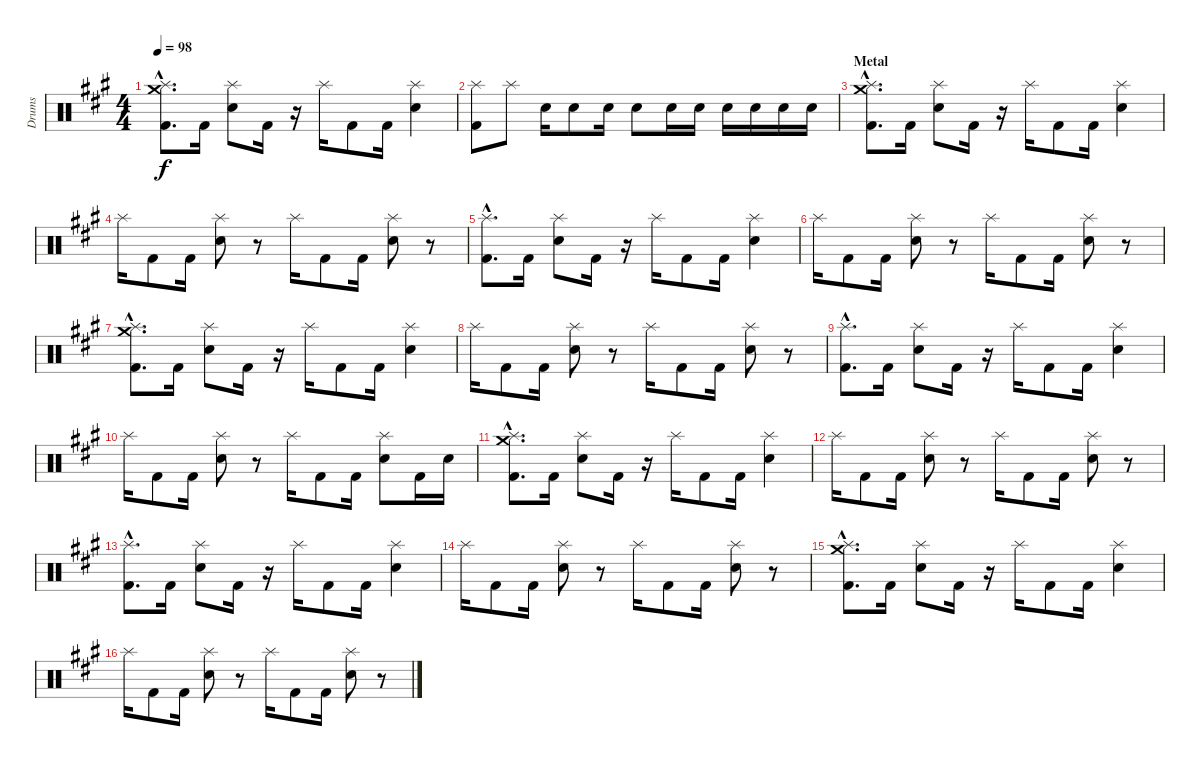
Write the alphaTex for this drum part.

\track ("Drums" "Drums") {instrument percussion}
\staff {score}
\articulation defaults
\ts (4 4)
\tempo 98
\clef neutral
\ks a
("Splash (hit)"{hac} "Crash medium (hit)"{hac} "Kick (hit) 2"{hac}).8{d dy f} "Kick (hit) 2".16 ("Splash (hit)" "Snare (hit) 2").8 "Kick (hit) 2".16 r.16 "Splash (hit)".16 "Kick (hit) 2".8 "Kick (hit) 2".16 ("Splash (hit)" "Snare (hit) 2").4 |
("Splash (hit)" "Kick (hit) 2").8 "Splash (hit)".8 "Snare (hit) 2".16 "Snare (hit) 2".8 "Snare (hit) 2".16 "Snare (hit) 2".8 "Snare (hit) 2".16 "Snare (hit) 2".16 "Snare (hit) 2".16 "Snare (hit) 2".16 "Snare (hit) 2".16 "Snare (hit) 2".16 |
\section ("" "Metal")
("Splash (hit)"{hac} "Crash medium (hit)"{hac} "Kick (hit) 2"{hac}).8{d} "Kick (hit) 2".16 ("Splash (hit)" "Snare (hit) 2").8 "Kick (hit) 2".16 r.16 "Splash (hit)".16 "Kick (hit) 2".8 "Kick (hit) 2".16 ("Splash (hit)" "Snare (hit) 2").4 |
"Splash (hit)".16 "Kick (hit) 2".8 "Kick (hit) 2".16 ("Splash (hit)" "Snare (hit) 2").8 r.8 "Splash (hit)".16 "Kick (hit) 2".8 "Kick (hit) 2".16 ("Splash (hit)" "Snare (hit) 2").8 r.8 |
("Splash (hit)"{hac} "Kick (hit) 2"{hac}).8{d} "Kick (hit) 2".16 ("Splash (hit)" "Snare (hit) 2").8 "Kick (hit) 2".16 r.16 "Splash (hit)".16 "Kick (hit) 2".8 "Kick (hit) 2".16 ("Splash (hit)" "Snare (hit) 2").4 |
"Splash (hit)".16 "Kick (hit) 2".8 "Kick (hit) 2".16 ("Splash (hit)" "Snare (hit) 2").8 r.8 "Splash (hit)".16 "Kick (hit) 2".8 "Kick (hit) 2".16 ("Splash (hit)" "Snare (hit) 2").8 r.8 |
("Splash (hit)"{hac} "Crash medium (hit)"{hac} "Kick (hit) 2"{hac}).8{d} "Kick (hit) 2".16 ("Splash (hit)" "Snare (hit) 2").8 "Kick (hit) 2".16 r.16 "Splash (hit)".16 "Kick (hit) 2".8 "Kick (hit) 2".16 ("Splash (hit)" "Snare (hit) 2").4 |
"Splash (hit)".16 "Kick (hit) 2".8 "Kick (hit) 2".16 ("Splash (hit)" "Snare (hit) 2").8 r.8 "Splash (hit)".16 "Kick (hit) 2".8 "Kick (hit) 2".16 ("Splash (hit)" "Snare (hit) 2").8 r.8 |
("Splash (hit)"{hac} "Kick (hit) 2"{hac}).8{d} "Kick (hit) 2".16 ("Splash (hit)" "Snare (hit) 2").8 "Kick (hit) 2".16 r.16 "Splash (hit)".16 "Kick (hit) 2".8 "Kick (hit) 2".16 ("Splash (hit)" "Snare (hit) 2").4 |
"Splash (hit)".16 "Kick (hit) 2".8 "Kick (hit) 2".16 ("Splash (hit)" "Snare (hit) 2").8 r.8 "Splash (hit)".16 "Kick (hit) 2".8 "Kick (hit) 2".16 ("Splash (hit)" "Snare (hit) 2").8 "Kick (hit) 2".16 "Snare (hit) 2".16 |
("Splash (hit)"{hac} "Crash medium (hit)"{hac} "Kick (hit) 2"{hac}).8{d} "Kick (hit) 2".16 ("Splash (hit)" "Snare (hit) 2").8 "Kick (hit) 2".16 r.16 "Splash (hit)".16 "Kick (hit) 2".8 "Kick (hit) 2".16 ("Splash (hit)" "Snare (hit) 2").4 |
"Splash (hit)".16 "Kick (hit) 2".8 "Kick (hit) 2".16 ("Splash (hit)" "Snare (hit) 2").8 r.8 "Splash (hit)".16 "Kick (hit) 2".8 "Kick (hit) 2".16 ("Splash (hit)" "Snare (hit) 2").8 r.8 |
("Splash (hit)"{hac} "Kick (hit) 2"{hac}).8{d} "Kick (hit) 2".16 ("Splash (hit)" "Snare (hit) 2").8 "Kick (hit) 2".16 r.16 "Splash (hit)".16 "Kick (hit) 2".8 "Kick (hit) 2".16 ("Splash (hit)" "Snare (hit) 2").4 |
"Splash (hit)".16 "Kick (hit) 2".8 "Kick (hit) 2".16 ("Splash (hit)" "Snare (hit) 2").8 r.8 "Splash (hit)".16 "Kick (hit) 2".8 "Kick (hit) 2".16 ("Splash (hit)" "Snare (hit) 2").8 r.8 |
("Splash (hit)"{hac} "Crash medium (hit)"{hac} "Kick (hit) 2"{hac}).8{d} "Kick (hit) 2".16 ("Splash (hit)" "Snare (hit) 2").8 "Kick (hit) 2".16 r.16 "Splash (hit)".16 "Kick (hit) 2".8 "Kick (hit) 2".16 ("Splash (hit)" "Snare (hit) 2").4 |
"Splash (hit)".16 "Kick (hit) 2".8 "Kick (hit) 2".16 ("Splash (hit)" "Snare (hit) 2").8 r.8 "Splash (hit)".16 "Kick (hit) 2".8 "Kick (hit) 2".16 ("Splash (hit)" "Snare (hit) 2").8 r.8
